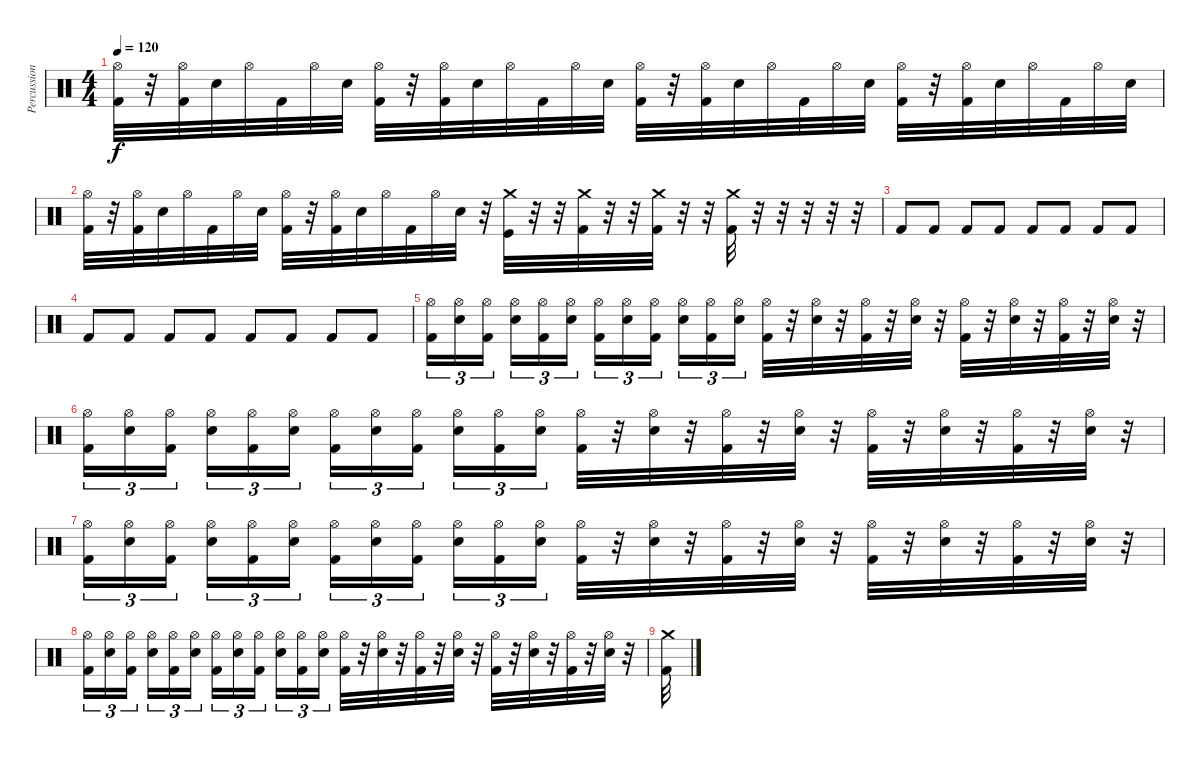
\track ("Percussion" "Percussion") {instrument percussion}
\staff {score}
\articulation defaults
\ts (4 4)
\tempo 120
\clef neutral
\ks c
("Hi-Hat (open)" "Kick (hit) 2").32{dy f} r.32 ("Hi-Hat (open)" "Kick (hit) 2").32 "Electric Snare (hit)".32 "Hi-Hat (open)".32 "Kick (hit) 2".32 "Hi-Hat (open)".32 "Electric Snare (hit)".32 ("Hi-Hat (open)" "Kick (hit) 2").32 r.32 ("Hi-Hat (open)" "Kick (hit) 2").32 "Electric Snare (hit)".32 "Hi-Hat (open)".32 "Kick (hit) 2".32 "Hi-Hat (open)".32 "Electric Snare (hit)".32 ("Hi-Hat (open)" "Kick (hit) 2").32 r.32 ("Hi-Hat (open)" "Kick (hit) 2").32 "Electric Snare (hit)".32 "Hi-Hat (open)".32 "Kick (hit) 2".32 "Hi-Hat (open)".32 "Electric Snare (hit)".32 ("Hi-Hat (open)" "Kick (hit) 2").32 r.32 ("Hi-Hat (open)" "Kick (hit) 2").32 "Electric Snare (hit)".32 "Hi-Hat (open)".32 "Kick (hit) 2".32 "Hi-Hat (open)".32 "Electric Snare (hit)".32 |
("Hi-Hat (open)" "Kick (hit) 2").32 r.32 ("Hi-Hat (open)" "Kick (hit) 2").32 "Electric Snare (hit)".32 "Hi-Hat (open)".32 "Kick (hit) 2".32 "Hi-Hat (open)".32 "Electric Snare (hit)".32 ("Hi-Hat (open)" "Kick (hit) 2").32 r.32 ("Hi-Hat (open)" "Kick (hit) 2").32 "Electric Snare (hit)".32 "Hi-Hat (open)".32 "Kick (hit) 2".32 "Hi-Hat (open)".32 "Electric Snare (hit)".32 r.32 ("Crash medium (hit)" "Kick (hit)").32 r.32 r.32 ("Crash medium (hit)" "Kick (hit) 2").32 r.32 r.32 ("Crash medium (hit)" "Kick (hit) 2").32 r.32 r.32 ("Crash medium (hit)" "Kick (hit) 2").32 r.32 r.32 r.32 r.32 r.32 |
"Kick (hit) 2".8 "Kick (hit) 2".8 "Kick (hit) 2".8 "Kick (hit) 2".8 "Kick (hit) 2".8 "Kick (hit) 2".8 "Kick (hit) 2".8 "Kick (hit) 2".8 |
"Kick (hit) 2".8 "Kick (hit) 2".8 "Kick (hit) 2".8 "Kick (hit) 2".8 "Kick (hit) 2".8 "Kick (hit) 2".8 "Kick (hit) 2".8 "Kick (hit) 2".8 |
("Hi-Hat (open)" "Kick (hit) 2").16{tu (3 2)} ("Hi-Hat (open)" "Electric Snare (hit)").16{tu (3 2)} ("Hi-Hat (open)" "Kick (hit) 2").16{tu (3 2)} ("Hi-Hat (open)" "Electric Snare (hit)").16{tu (3 2)} ("Hi-Hat (open)" "Kick (hit) 2").16{tu (3 2)} ("Hi-Hat (open)" "Electric Snare (hit)").16{tu (3 2)} ("Hi-Hat (open)" "Kick (hit) 2").16{tu (3 2)} ("Hi-Hat (open)" "Electric Snare (hit)").16{tu (3 2)} ("Hi-Hat (open)" "Kick (hit) 2").16{tu (3 2)} ("Hi-Hat (open)" "Electric Snare (hit)").16{tu (3 2)} ("Hi-Hat (open)" "Kick (hit) 2").16{tu (3 2)} ("Hi-Hat (open)" "Electric Snare (hit)").16{tu (3 2)} ("Hi-Hat (open)" "Kick (hit) 2").32 r.32 ("Hi-Hat (open)" "Electric Snare (hit)").32 r.32 ("Hi-Hat (open)" "Kick (hit) 2").32 r.32 ("Hi-Hat (open)" "Electric Snare (hit)").32 r.32 ("Hi-Hat (open)" "Kick (hit) 2").32 r.32 ("Hi-Hat (open)" "Electric Snare (hit)").32 r.32 ("Hi-Hat (open)" "Kick (hit) 2").32 r.32 ("Hi-Hat (open)" "Electric Snare (hit)").32 r.32 |
("Hi-Hat (open)" "Kick (hit) 2").16{tu (3 2)} ("Hi-Hat (open)" "Electric Snare (hit)").16{tu (3 2)} ("Hi-Hat (open)" "Kick (hit) 2").16{tu (3 2)} ("Hi-Hat (open)" "Electric Snare (hit)").16{tu (3 2)} ("Hi-Hat (open)" "Kick (hit) 2").16{tu (3 2)} ("Hi-Hat (open)" "Electric Snare (hit)").16{tu (3 2)} ("Hi-Hat (open)" "Kick (hit) 2").16{tu (3 2)} ("Hi-Hat (open)" "Electric Snare (hit)").16{tu (3 2)} ("Hi-Hat (open)" "Kick (hit) 2").16{tu (3 2)} ("Hi-Hat (open)" "Electric Snare (hit)").16{tu (3 2)} ("Hi-Hat (open)" "Kick (hit) 2").16{tu (3 2)} ("Hi-Hat (open)" "Electric Snare (hit)").16{tu (3 2)} ("Hi-Hat (open)" "Kick (hit) 2").32 r.32 ("Hi-Hat (open)" "Electric Snare (hit)").32 r.32 ("Hi-Hat (open)" "Kick (hit) 2").32 r.32 ("Hi-Hat (open)" "Electric Snare (hit)").32 r.32 ("Hi-Hat (open)" "Kick (hit) 2").32 r.32 ("Hi-Hat (open)" "Electric Snare (hit)").32 r.32 ("Hi-Hat (open)" "Kick (hit) 2").32 r.32 ("Hi-Hat (open)" "Electric Snare (hit)").32 r.32 |
("Hi-Hat (open)" "Kick (hit) 2").16{tu (3 2)} ("Hi-Hat (open)" "Electric Snare (hit)").16{tu (3 2)} ("Hi-Hat (open)" "Kick (hit) 2").16{tu (3 2)} ("Hi-Hat (open)" "Electric Snare (hit)").16{tu (3 2)} ("Hi-Hat (open)" "Kick (hit) 2").16{tu (3 2)} ("Hi-Hat (open)" "Electric Snare (hit)").16{tu (3 2)} ("Hi-Hat (open)" "Kick (hit) 2").16{tu (3 2)} ("Hi-Hat (open)" "Electric Snare (hit)").16{tu (3 2)} ("Hi-Hat (open)" "Kick (hit) 2").16{tu (3 2)} ("Hi-Hat (open)" "Electric Snare (hit)").16{tu (3 2)} ("Hi-Hat (open)" "Kick (hit) 2").16{tu (3 2)} ("Hi-Hat (open)" "Electric Snare (hit)").16{tu (3 2)} ("Hi-Hat (open)" "Kick (hit) 2").32 r.32 ("Hi-Hat (open)" "Electric Snare (hit)").32 r.32 ("Hi-Hat (open)" "Kick (hit) 2").32 r.32 ("Hi-Hat (open)" "Electric Snare (hit)").32 r.32 ("Hi-Hat (open)" "Kick (hit) 2").32 r.32 ("Hi-Hat (open)" "Electric Snare (hit)").32 r.32 ("Hi-Hat (open)" "Kick (hit) 2").32 r.32 ("Hi-Hat (open)" "Electric Snare (hit)").32 r.32 |
("Hi-Hat (open)" "Kick (hit) 2").16{tu (3 2)} ("Hi-Hat (open)" "Electric Snare (hit)").16{tu (3 2)} ("Hi-Hat (open)" "Kick (hit) 2").16{tu (3 2)} ("Hi-Hat (open)" "Electric Snare (hit)").16{tu (3 2)} ("Hi-Hat (open)" "Kick (hit) 2").16{tu (3 2)} ("Hi-Hat (open)" "Electric Snare (hit)").16{tu (3 2)} ("Hi-Hat (open)" "Kick (hit) 2").16{tu (3 2)} ("Hi-Hat (open)" "Electric Snare (hit)").16{tu (3 2)} ("Hi-Hat (open)" "Kick (hit) 2").16{tu (3 2)} ("Hi-Hat (open)" "Electric Snare (hit)").16{tu (3 2)} ("Hi-Hat (open)" "Kick (hit) 2").16{tu (3 2)} ("Hi-Hat (open)" "Electric Snare (hit)").16{tu (3 2)} ("Hi-Hat (open)" "Kick (hit) 2").32 r.32 ("Hi-Hat (open)" "Electric Snare (hit)").32 r.32 ("Hi-Hat (open)" "Kick (hit) 2").32 r.32 ("Hi-Hat (open)" "Electric Snare (hit)").32 r.32 ("Hi-Hat (open)" "Kick (hit) 2").32 r.32 ("Hi-Hat (open)" "Electric Snare (hit)").32 r.32 ("Hi-Hat (open)" "Kick (hit) 2").32 r.32 ("Hi-Hat (open)" "Electric Snare (hit)").32 r.32 |
("Crash medium (hit)" "Kick (hit) 2").32
